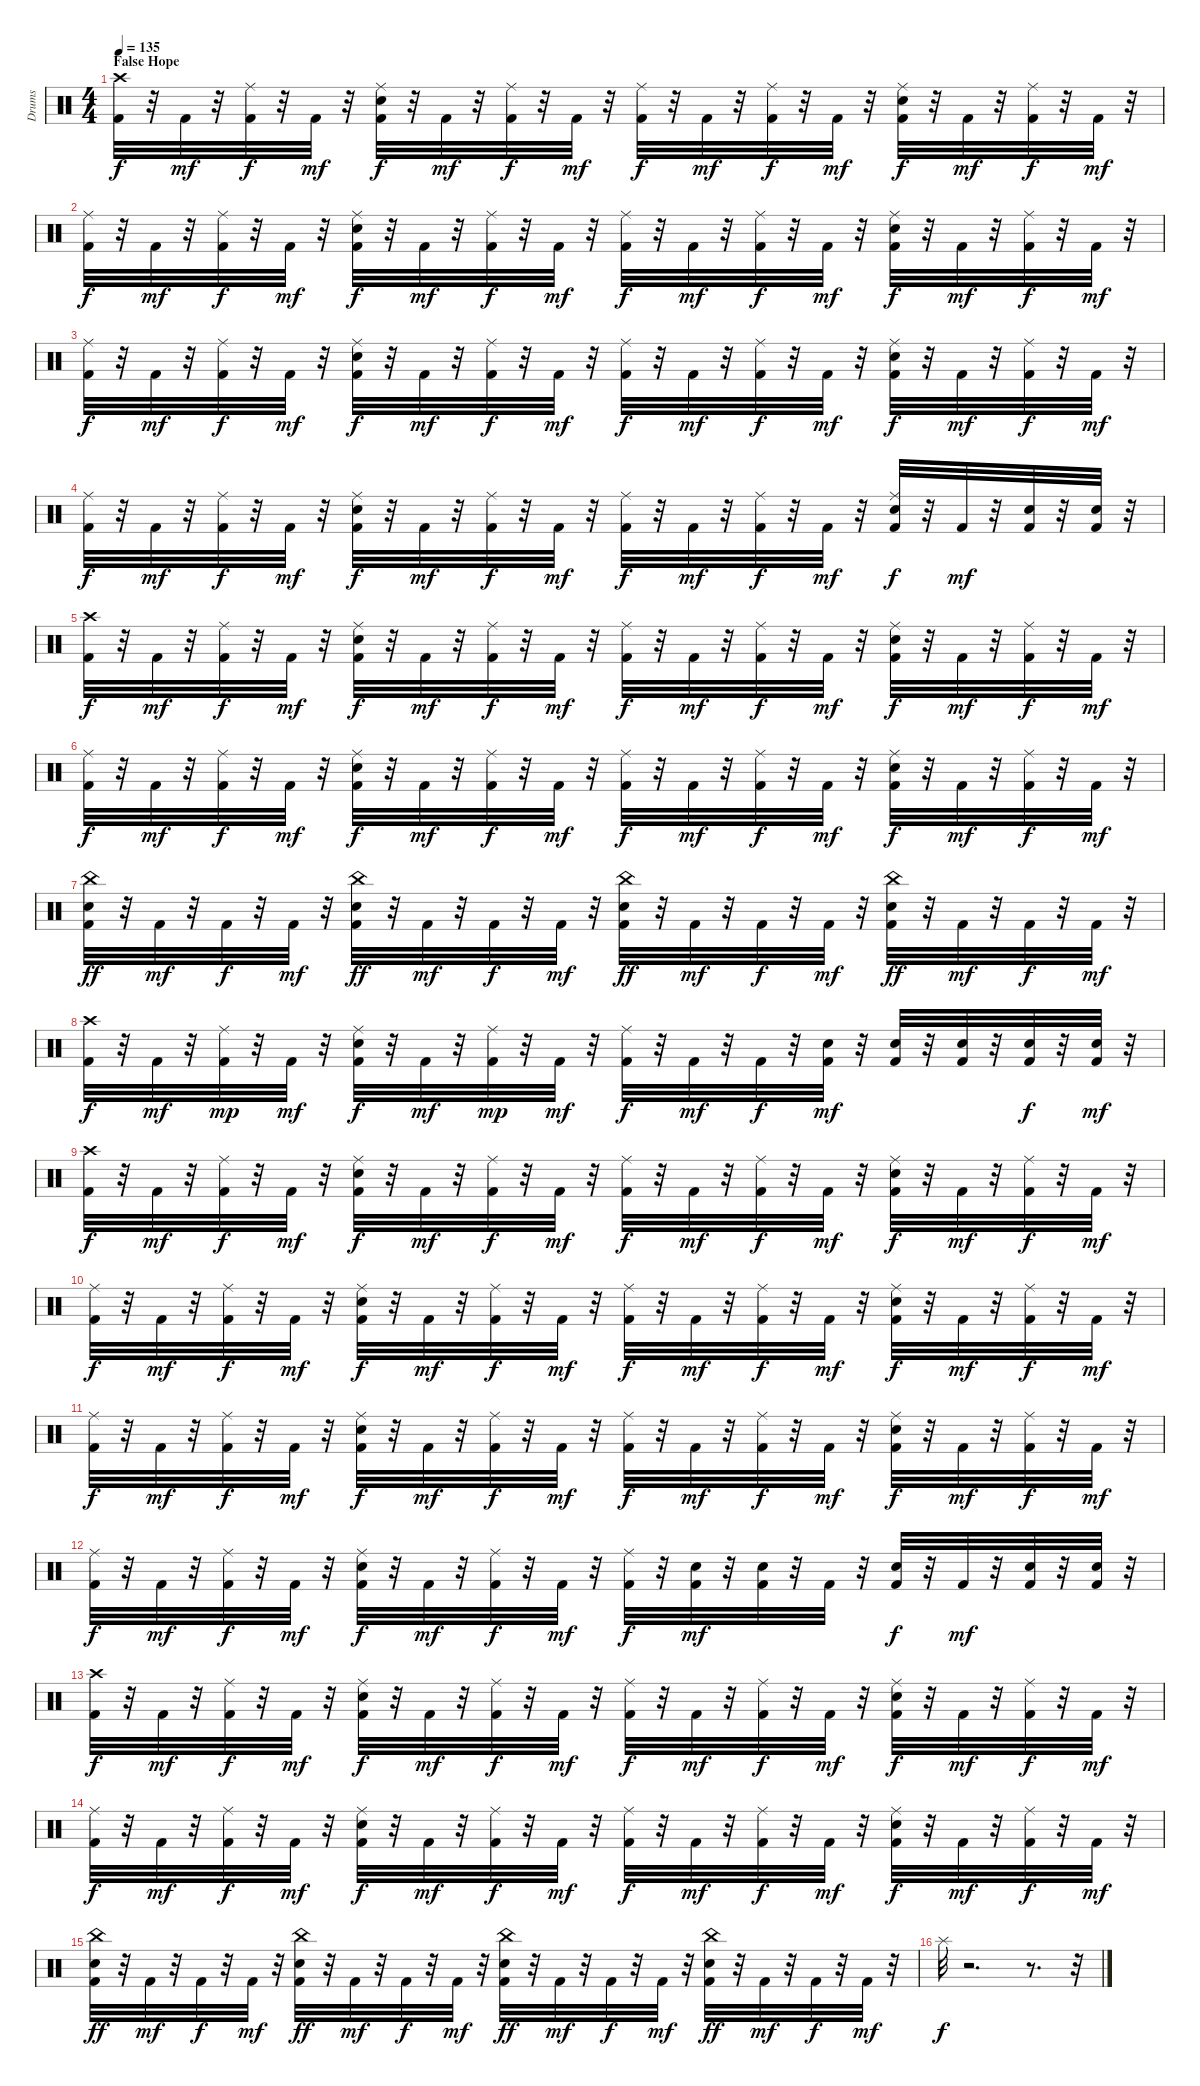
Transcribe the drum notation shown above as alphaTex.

\track ("Drums" "Drums") {instrument percussion}
\staff {score}
\articulation defaults
\ts (4 4)
\section ("" "False Hope")
\tempo 135
\clef neutral
\ks c
("Crash high (hit)" "Kick (hit) 2").32{dy f} r.32 "Kick (hit) 2".32{dy mf} r.32 ("Ride (middle)" "Kick (hit) 2").32{dy f} r.32 "Kick (hit) 2".32{dy mf} r.32 ("Kick (hit) 2" "Ride (middle)" "Snare (hit) 2").32{dy f} r.32 "Kick (hit) 2".32{dy mf} r.32 ("Ride (middle)" "Kick (hit) 2").32{dy f} r.32 "Kick (hit) 2".32{dy mf} r.32 ("Ride (middle)" "Kick (hit) 2").32{dy f} r.32 "Kick (hit) 2".32{dy mf} r.32 ("Ride (middle)" "Kick (hit) 2").32{dy f} r.32 "Kick (hit) 2".32{dy mf} r.32 ("Kick (hit) 2" "Ride (middle)" "Snare (hit) 2").32{dy f} r.32 "Kick (hit) 2".32{dy mf} r.32 ("Ride (middle)" "Kick (hit) 2").32{dy f} r.32 "Kick (hit) 2".32{dy mf} r.32 |
("Ride (middle)" "Kick (hit) 2").32{dy f} r.32 "Kick (hit) 2".32{dy mf} r.32 ("Ride (middle)" "Kick (hit) 2").32{dy f} r.32 "Kick (hit) 2".32{dy mf} r.32 ("Kick (hit) 2" "Ride (middle)" "Snare (hit) 2").32{dy f} r.32 "Kick (hit) 2".32{dy mf} r.32 ("Ride (middle)" "Kick (hit) 2").32{dy f} r.32 "Kick (hit) 2".32{dy mf} r.32 ("Ride (middle)" "Kick (hit) 2").32{dy f} r.32 "Kick (hit) 2".32{dy mf} r.32 ("Ride (middle)" "Kick (hit) 2").32{dy f} r.32 "Kick (hit) 2".32{dy mf} r.32 ("Kick (hit) 2" "Ride (middle)" "Snare (hit) 2").32{dy f} r.32 "Kick (hit) 2".32{dy mf} r.32 ("Ride (middle)" "Kick (hit) 2").32{dy f} r.32 "Kick (hit) 2".32{dy mf} r.32 |
("Ride (middle)" "Kick (hit) 2").32{dy f} r.32 "Kick (hit) 2".32{dy mf} r.32 ("Ride (middle)" "Kick (hit) 2").32{dy f} r.32 "Kick (hit) 2".32{dy mf} r.32 ("Kick (hit) 2" "Ride (middle)" "Snare (hit) 2").32{dy f} r.32 "Kick (hit) 2".32{dy mf} r.32 ("Ride (middle)" "Kick (hit) 2").32{dy f} r.32 "Kick (hit) 2".32{dy mf} r.32 ("Ride (middle)" "Kick (hit) 2").32{dy f} r.32 "Kick (hit) 2".32{dy mf} r.32 ("Ride (middle)" "Kick (hit) 2").32{dy f} r.32 "Kick (hit) 2".32{dy mf} r.32 ("Kick (hit) 2" "Ride (middle)" "Snare (hit) 2").32{dy f} r.32 "Kick (hit) 2".32{dy mf} r.32 ("Ride (middle)" "Kick (hit) 2").32{dy f} r.32 "Kick (hit) 2".32{dy mf} r.32 |
("Ride (middle)" "Kick (hit) 2").32{dy f} r.32 "Kick (hit) 2".32{dy mf} r.32 ("Ride (middle)" "Kick (hit) 2").32{dy f} r.32 "Kick (hit) 2".32{dy mf} r.32 ("Kick (hit) 2" "Ride (middle)" "Snare (hit) 2").32{dy f} r.32 "Kick (hit) 2".32{dy mf} r.32 ("Ride (middle)" "Kick (hit) 2").32{dy f} r.32 "Kick (hit) 2".32{dy mf} r.32 ("Ride (middle)" "Kick (hit) 2").32{dy f} r.32 "Kick (hit) 2".32{dy mf} r.32 ("Ride (middle)" "Kick (hit) 2").32{dy f} r.32 "Kick (hit) 2".32{dy mf} r.32 ("Kick (hit) 2" "Ride (middle)" "Snare (hit) 2").32{dy f} r.32 "Kick (hit) 2".32{dy mf} r.32 ("Snare (hit) 2" "Kick (hit) 2").32 r.32 ("Snare (hit) 2" "Kick (hit) 2").32 r.32 |
("Crash high (hit)" "Kick (hit) 2").32{dy f} r.32 "Kick (hit) 2".32{dy mf} r.32 ("Ride (middle)" "Kick (hit) 2").32{dy f} r.32 "Kick (hit) 2".32{dy mf} r.32 ("Kick (hit) 2" "Ride (middle)" "Snare (hit) 2").32{dy f} r.32 "Kick (hit) 2".32{dy mf} r.32 ("Ride (middle)" "Kick (hit) 2").32{dy f} r.32 "Kick (hit) 2".32{dy mf} r.32 ("Ride (middle)" "Kick (hit) 2").32{dy f} r.32 "Kick (hit) 2".32{dy mf} r.32 ("Ride (middle)" "Kick (hit) 2").32{dy f} r.32 "Kick (hit) 2".32{dy mf} r.32 ("Kick (hit) 2" "Ride (middle)" "Snare (hit) 2").32{dy f} r.32 "Kick (hit) 2".32{dy mf} r.32 ("Ride (middle)" "Kick (hit) 2").32{dy f} r.32 "Kick (hit) 2".32{dy mf} r.32 |
("Ride (middle)" "Kick (hit) 2").32{dy f} r.32 "Kick (hit) 2".32{dy mf} r.32 ("Ride (middle)" "Kick (hit) 2").32{dy f} r.32 "Kick (hit) 2".32{dy mf} r.32 ("Kick (hit) 2" "Ride (middle)" "Snare (hit) 2").32{dy f} r.32 "Kick (hit) 2".32{dy mf} r.32 ("Ride (middle)" "Kick (hit) 2").32{dy f} r.32 "Kick (hit) 2".32{dy mf} r.32 ("Ride (middle)" "Kick (hit) 2").32{dy f} r.32 "Kick (hit) 2".32{dy mf} r.32 ("Ride (middle)" "Kick (hit) 2").32{dy f} r.32 "Kick (hit) 2".32{dy mf} r.32 ("Kick (hit) 2" "Ride (middle)" "Snare (hit) 2").32{dy f} r.32 "Kick (hit) 2".32{dy mf} r.32 ("Ride (middle)" "Kick (hit) 2").32{dy f} r.32 "Kick (hit) 2".32{dy mf} r.32 |
("Snare (hit) 2" "China (hit)" "Kick (hit) 2").32{dy ff} r.32 "Kick (hit) 2".32{dy mf} r.32 "Kick (hit) 2".32{dy f} r.32 "Kick (hit) 2".32{dy mf} r.32 ("Kick (hit) 2" "China (hit)" "Snare (hit) 2").32{dy ff} r.32 "Kick (hit) 2".32{dy mf} r.32 "Kick (hit) 2".32{dy f} r.32 "Kick (hit) 2".32{dy mf} r.32 ("Snare (hit) 2" "China (hit)" "Kick (hit) 2").32{dy ff} r.32 "Kick (hit) 2".32{dy mf} r.32 "Kick (hit) 2".32{dy f} r.32 "Kick (hit) 2".32{dy mf} r.32 ("Kick (hit) 2" "China (hit)" "Snare (hit) 2").32{dy ff} r.32 "Kick (hit) 2".32{dy mf} r.32 "Kick (hit) 2".32{dy f} r.32 "Kick (hit) 2".32{dy mf} r.32 |
("Crash high (hit)" "Kick (hit) 2").32{dy f} r.32 "Kick (hit) 2".32{dy mf} r.32 ("Ride (middle)" "Kick (hit) 2").32{dy mp} r.32 "Kick (hit) 2".32{dy mf} r.32 ("Kick (hit) 2" "Ride (middle)" "Snare (hit) 2").32{dy f} r.32 "Kick (hit) 2".32{dy mf} r.32 ("Ride (middle)" "Kick (hit) 2").32{dy mp} r.32 "Kick (hit) 2".32{dy mf} r.32 ("Ride (middle)" "Kick (hit) 2").32{dy f} r.32 "Kick (hit) 2".32{dy mf} r.32 "Kick (hit) 2".32{dy f} r.32 ("Snare (hit) 2" "Kick (hit) 2").32{dy mf} r.32 ("Snare (hit) 2" "Kick (hit) 2").32 r.32 ("Snare (hit) 2" "Kick (hit) 2").32 r.32 ("Snare (hit) 2" "Kick (hit) 2").32{dy f} r.32 ("Snare (hit) 2" "Kick (hit) 2").32{dy mf} r.32 |
("Crash high (hit)" "Kick (hit) 2").32{dy f} r.32 "Kick (hit) 2".32{dy mf} r.32 ("Ride (middle)" "Kick (hit) 2").32{dy f} r.32 "Kick (hit) 2".32{dy mf} r.32 ("Kick (hit) 2" "Ride (middle)" "Snare (hit) 2").32{dy f} r.32 "Kick (hit) 2".32{dy mf} r.32 ("Ride (middle)" "Kick (hit) 2").32{dy f} r.32 "Kick (hit) 2".32{dy mf} r.32 ("Ride (middle)" "Kick (hit) 2").32{dy f} r.32 "Kick (hit) 2".32{dy mf} r.32 ("Ride (middle)" "Kick (hit) 2").32{dy f} r.32 "Kick (hit) 2".32{dy mf} r.32 ("Kick (hit) 2" "Ride (middle)" "Snare (hit) 2").32{dy f} r.32 "Kick (hit) 2".32{dy mf} r.32 ("Ride (middle)" "Kick (hit) 2").32{dy f} r.32 "Kick (hit) 2".32{dy mf} r.32 |
("Ride (middle)" "Kick (hit) 2").32{dy f} r.32 "Kick (hit) 2".32{dy mf} r.32 ("Ride (middle)" "Kick (hit) 2").32{dy f} r.32 "Kick (hit) 2".32{dy mf} r.32 ("Kick (hit) 2" "Ride (middle)" "Snare (hit) 2").32{dy f} r.32 "Kick (hit) 2".32{dy mf} r.32 ("Ride (middle)" "Kick (hit) 2").32{dy f} r.32 "Kick (hit) 2".32{dy mf} r.32 ("Ride (middle)" "Kick (hit) 2").32{dy f} r.32 "Kick (hit) 2".32{dy mf} r.32 ("Ride (middle)" "Kick (hit) 2").32{dy f} r.32 "Kick (hit) 2".32{dy mf} r.32 ("Kick (hit) 2" "Ride (middle)" "Snare (hit) 2").32{dy f} r.32 "Kick (hit) 2".32{dy mf} r.32 ("Ride (middle)" "Kick (hit) 2").32{dy f} r.32 "Kick (hit) 2".32{dy mf} r.32 |
("Ride (middle)" "Kick (hit) 2").32{dy f} r.32 "Kick (hit) 2".32{dy mf} r.32 ("Ride (middle)" "Kick (hit) 2").32{dy f} r.32 "Kick (hit) 2".32{dy mf} r.32 ("Kick (hit) 2" "Ride (middle)" "Snare (hit) 2").32{dy f} r.32 "Kick (hit) 2".32{dy mf} r.32 ("Ride (middle)" "Kick (hit) 2").32{dy f} r.32 "Kick (hit) 2".32{dy mf} r.32 ("Ride (middle)" "Kick (hit) 2").32{dy f} r.32 "Kick (hit) 2".32{dy mf} r.32 ("Ride (middle)" "Kick (hit) 2").32{dy f} r.32 "Kick (hit) 2".32{dy mf} r.32 ("Kick (hit) 2" "Ride (middle)" "Snare (hit) 2").32{dy f} r.32 "Kick (hit) 2".32{dy mf} r.32 ("Ride (middle)" "Kick (hit) 2").32{dy f} r.32 "Kick (hit) 2".32{dy mf} r.32 |
("Ride (middle)" "Kick (hit) 2").32{dy f} r.32 "Kick (hit) 2".32{dy mf} r.32 ("Ride (middle)" "Kick (hit) 2").32{dy f} r.32 "Kick (hit) 2".32{dy mf} r.32 ("Kick (hit) 2" "Ride (middle)" "Snare (hit) 2").32{dy f} r.32 "Kick (hit) 2".32{dy mf} r.32 ("Ride (middle)" "Kick (hit) 2").32{dy f} r.32 "Kick (hit) 2".32{dy mf} r.32 ("Ride (middle)" "Kick (hit) 2").32{dy f} r.32 ("Snare (hit) 2" "Kick (hit) 2").32{dy mf} r.32 ("Snare (hit) 2" "Kick (hit) 2").32 r.32 "Kick (hit) 2".32 r.32 ("Kick (hit) 2" "Snare (hit) 2").32{dy f} r.32 "Kick (hit) 2".32{dy mf} r.32 ("Snare (hit) 2" "Kick (hit) 2").32 r.32 ("Snare (hit) 2" "Kick (hit) 2").32 r.32 |
("Crash high (hit)" "Kick (hit) 2").32{dy f} r.32 "Kick (hit) 2".32{dy mf} r.32 ("Ride (middle)" "Kick (hit) 2").32{dy f} r.32 "Kick (hit) 2".32{dy mf} r.32 ("Kick (hit) 2" "Ride (middle)" "Snare (hit) 2").32{dy f} r.32 "Kick (hit) 2".32{dy mf} r.32 ("Ride (middle)" "Kick (hit) 2").32{dy f} r.32 "Kick (hit) 2".32{dy mf} r.32 ("Ride (middle)" "Kick (hit) 2").32{dy f} r.32 "Kick (hit) 2".32{dy mf} r.32 ("Ride (middle)" "Kick (hit) 2").32{dy f} r.32 "Kick (hit) 2".32{dy mf} r.32 ("Kick (hit) 2" "Ride (middle)" "Snare (hit) 2").32{dy f} r.32 "Kick (hit) 2".32{dy mf} r.32 ("Ride (middle)" "Kick (hit) 2").32{dy f} r.32 "Kick (hit) 2".32{dy mf} r.32 |
("Ride (middle)" "Kick (hit) 2").32{dy f} r.32 "Kick (hit) 2".32{dy mf} r.32 ("Ride (middle)" "Kick (hit) 2").32{dy f} r.32 "Kick (hit) 2".32{dy mf} r.32 ("Kick (hit) 2" "Ride (middle)" "Snare (hit) 2").32{dy f} r.32 "Kick (hit) 2".32{dy mf} r.32 ("Ride (middle)" "Kick (hit) 2").32{dy f} r.32 "Kick (hit) 2".32{dy mf} r.32 ("Ride (middle)" "Kick (hit) 2").32{dy f} r.32 "Kick (hit) 2".32{dy mf} r.32 ("Ride (middle)" "Kick (hit) 2").32{dy f} r.32 "Kick (hit) 2".32{dy mf} r.32 ("Kick (hit) 2" "Ride (middle)" "Snare (hit) 2").32{dy f} r.32 "Kick (hit) 2".32{dy mf} r.32 ("Ride (middle)" "Kick (hit) 2").32{dy f} r.32 "Kick (hit) 2".32{dy mf} r.32 |
("Snare (hit) 2" "China (hit)" "Kick (hit) 2").32{dy ff} r.32 "Kick (hit) 2".32{dy mf} r.32 "Kick (hit) 2".32{dy f} r.32 "Kick (hit) 2".32{dy mf} r.32 ("Kick (hit) 2" "China (hit)" "Snare (hit) 2").32{dy ff} r.32 "Kick (hit) 2".32{dy mf} r.32 "Kick (hit) 2".32{dy f} r.32 "Kick (hit) 2".32{dy mf} r.32 ("Snare (hit) 2" "China (hit)" "Kick (hit) 2").32{dy ff} r.32 "Kick (hit) 2".32{dy mf} r.32 "Kick (hit) 2".32{dy f} r.32 "Kick (hit) 2".32{dy mf} r.32 ("Kick (hit) 2" "China (hit)" "Snare (hit) 2").32{dy ff} r.32 "Kick (hit) 2".32{dy mf} r.32 "Kick (hit) 2".32{dy f} r.32 "Kick (hit) 2".32{dy mf} r.32 |
"Splash (hit)".32{dy f} r.2{d} r.8{d} r.32
